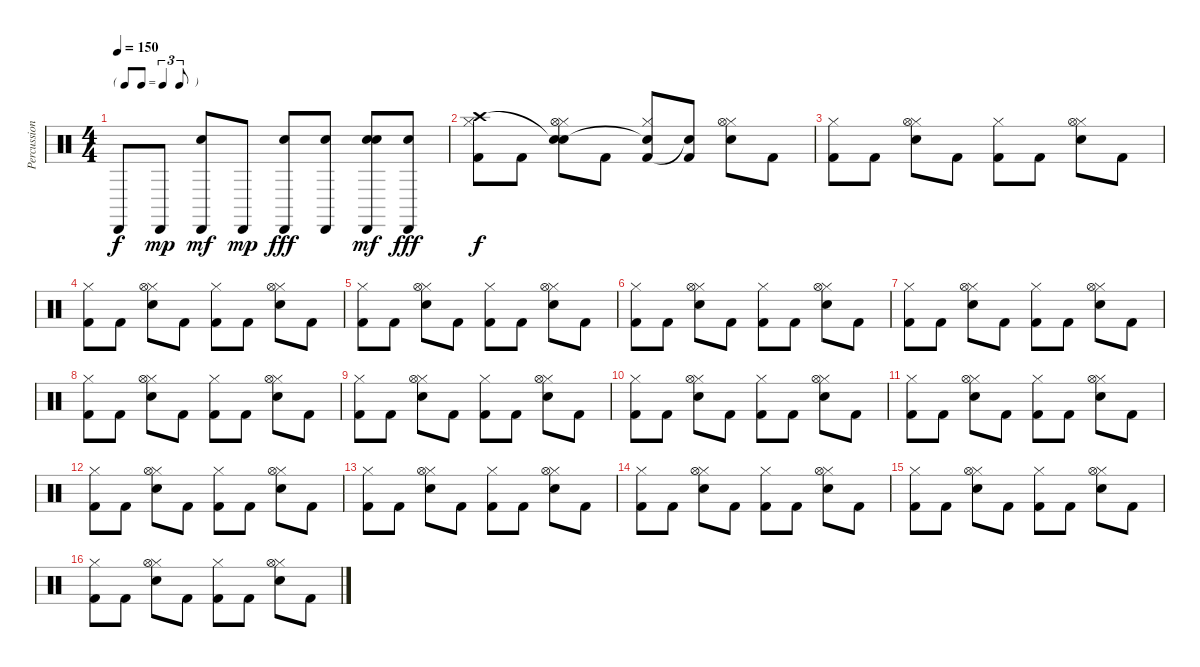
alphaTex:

\track ("Percussion" "Percussion") {instrument percussion}
\staff {score}
\articulation defaults
\ts (4 4)
\tf triplet8th
\tempo 150
\clef neutral
\ks c "Cabasa (hit)".8{dy f} "Cabasa (hit)".8{dy mp}
("Cabasa (hit)" "Hand Clap (hit)").8{dy mf} "Cabasa (hit)".8{dy mp} ("Cabasa (hit)" "Snare (hit) 2").8{dy fff} ("Cabasa (hit)" "Snare (hit) 2").8 ("Cabasa (hit)" "Snare (hit) 2" "Hand Clap (hit)").8{dy mf} ("Cabasa (hit)" "Snare (hit) 2").8{dy fff} |
("Hi-Hat (closed)" "Kick (hit) 2" "Crash high (hit)").8{dy f} "Kick (hit) 2".8 ("Hi-Hat (closed)" "Electric Snare (hit)" "Snare (hit)"{t} "Hi-Hat (open)").8 "Kick (hit) 2".8 ("Hi-Hat (closed)" "Kick (hit) 2" "Snare (hit)"{t}).8 ("Kick (hit) 2" "Snare (hit)"{t}).8 ("Hi-Hat (closed)" "Electric Snare (hit)" "Hi-Hat (open)").8 "Kick (hit) 2".8 |
("Hi-Hat (closed)" "Kick (hit) 2").8 "Kick (hit) 2".8 ("Hi-Hat (closed)" "Electric Snare (hit)" "Hi-Hat (open)").8 "Kick (hit) 2".8 ("Hi-Hat (closed)" "Kick (hit) 2").8 "Kick (hit) 2".8 ("Hi-Hat (closed)" "Electric Snare (hit)" "Hi-Hat (open)").8 "Kick (hit) 2".8 |
("Hi-Hat (closed)" "Kick (hit) 2").8 "Kick (hit) 2".8 ("Hi-Hat (closed)" "Electric Snare (hit)" "Hi-Hat (open)").8 "Kick (hit) 2".8 ("Hi-Hat (closed)" "Kick (hit) 2").8 "Kick (hit) 2".8 ("Hi-Hat (closed)" "Electric Snare (hit)" "Hi-Hat (open)").8 "Kick (hit) 2".8 |
("Hi-Hat (closed)" "Kick (hit) 2").8 "Kick (hit) 2".8 ("Hi-Hat (closed)" "Electric Snare (hit)" "Hi-Hat (open)").8 "Kick (hit) 2".8 ("Hi-Hat (closed)" "Kick (hit) 2").8 "Kick (hit) 2".8 ("Hi-Hat (closed)" "Electric Snare (hit)" "Hi-Hat (open)").8 "Kick (hit) 2".8 |
("Hi-Hat (closed)" "Kick (hit) 2").8 "Kick (hit) 2".8 ("Hi-Hat (closed)" "Electric Snare (hit)" "Hi-Hat (open)").8 "Kick (hit) 2".8 ("Hi-Hat (closed)" "Kick (hit) 2").8 "Kick (hit) 2".8 ("Hi-Hat (closed)" "Electric Snare (hit)" "Hi-Hat (open)").8 "Kick (hit) 2".8 |
("Hi-Hat (closed)" "Kick (hit) 2").8 "Kick (hit) 2".8 ("Hi-Hat (closed)" "Electric Snare (hit)" "Hi-Hat (open)").8 "Kick (hit) 2".8 ("Hi-Hat (closed)" "Kick (hit) 2").8 "Kick (hit) 2".8 ("Hi-Hat (closed)" "Electric Snare (hit)" "Hi-Hat (open)").8 "Kick (hit) 2".8 |
("Hi-Hat (closed)" "Kick (hit) 2").8 "Kick (hit) 2".8 ("Hi-Hat (closed)" "Electric Snare (hit)" "Hi-Hat (open)").8 "Kick (hit) 2".8 ("Hi-Hat (closed)" "Kick (hit) 2").8 "Kick (hit) 2".8 ("Hi-Hat (closed)" "Electric Snare (hit)" "Hi-Hat (open)").8 "Kick (hit) 2".8 |
("Hi-Hat (closed)" "Kick (hit) 2").8 "Kick (hit) 2".8 ("Hi-Hat (closed)" "Electric Snare (hit)" "Hi-Hat (open)").8 "Kick (hit) 2".8 ("Hi-Hat (closed)" "Kick (hit) 2").8 "Kick (hit) 2".8 ("Hi-Hat (closed)" "Electric Snare (hit)" "Hi-Hat (open)").8 "Kick (hit) 2".8 |
("Hi-Hat (closed)" "Kick (hit) 2").8 "Kick (hit) 2".8 ("Hi-Hat (closed)" "Electric Snare (hit)" "Hi-Hat (open)").8 "Kick (hit) 2".8 ("Hi-Hat (closed)" "Kick (hit) 2").8 "Kick (hit) 2".8 ("Hi-Hat (closed)" "Electric Snare (hit)" "Hi-Hat (open)").8 "Kick (hit) 2".8 |
("Hi-Hat (closed)" "Kick (hit) 2").8 "Kick (hit) 2".8 ("Hi-Hat (closed)" "Electric Snare (hit)" "Hi-Hat (open)").8 "Kick (hit) 2".8 ("Hi-Hat (closed)" "Kick (hit) 2").8 "Kick (hit) 2".8 ("Hi-Hat (closed)" "Electric Snare (hit)" "Hi-Hat (open)").8 "Kick (hit) 2".8 |
("Hi-Hat (closed)" "Kick (hit) 2").8 "Kick (hit) 2".8 ("Hi-Hat (closed)" "Electric Snare (hit)" "Hi-Hat (open)").8 "Kick (hit) 2".8 ("Hi-Hat (closed)" "Kick (hit) 2").8 "Kick (hit) 2".8 ("Hi-Hat (closed)" "Electric Snare (hit)" "Hi-Hat (open)").8 "Kick (hit) 2".8 |
("Hi-Hat (closed)" "Kick (hit) 2").8 "Kick (hit) 2".8 ("Hi-Hat (closed)" "Electric Snare (hit)" "Hi-Hat (open)").8 "Kick (hit) 2".8 ("Hi-Hat (closed)" "Kick (hit) 2").8 "Kick (hit) 2".8 ("Hi-Hat (closed)" "Electric Snare (hit)" "Hi-Hat (open)").8 "Kick (hit) 2".8 |
("Hi-Hat (closed)" "Kick (hit) 2").8 "Kick (hit) 2".8 ("Hi-Hat (closed)" "Electric Snare (hit)" "Hi-Hat (open)").8 "Kick (hit) 2".8 ("Hi-Hat (closed)" "Kick (hit) 2").8 "Kick (hit) 2".8 ("Hi-Hat (closed)" "Electric Snare (hit)" "Hi-Hat (open)").8 "Kick (hit) 2".8 |
("Hi-Hat (closed)" "Kick (hit) 2").8 "Kick (hit) 2".8 ("Hi-Hat (closed)" "Electric Snare (hit)" "Hi-Hat (open)").8 "Kick (hit) 2".8 ("Hi-Hat (closed)" "Kick (hit) 2").8 "Kick (hit) 2".8 ("Hi-Hat (closed)" "Electric Snare (hit)" "Hi-Hat (open)").8 "Kick (hit) 2".8 |
("Hi-Hat (closed)" "Kick (hit) 2").8 "Kick (hit) 2".8 ("Hi-Hat (closed)" "Electric Snare (hit)" "Hi-Hat (open)").8 "Kick (hit) 2".8 ("Hi-Hat (closed)" "Kick (hit) 2").8 "Kick (hit) 2".8 ("Hi-Hat (closed)" "Electric Snare (hit)" "Hi-Hat (open)").8 "Kick (hit) 2".8
